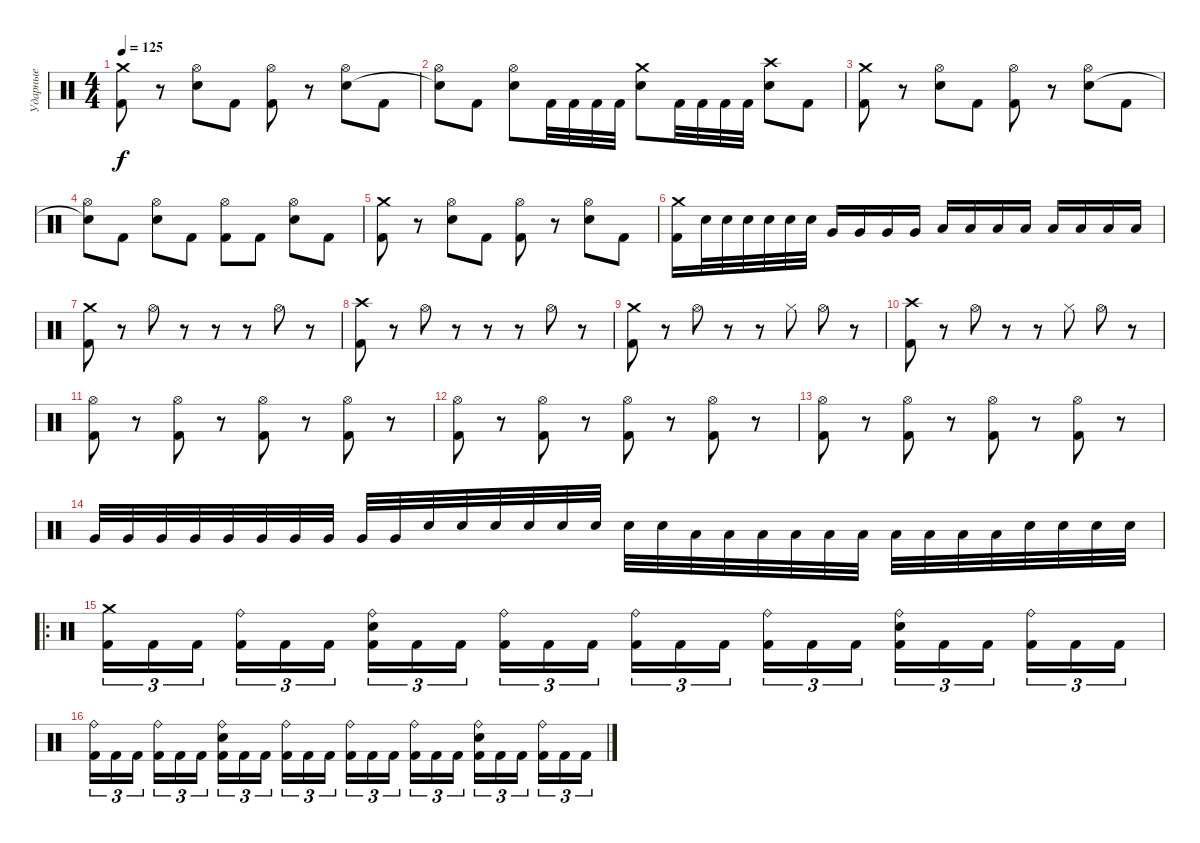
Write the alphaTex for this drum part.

\track ("Ударные" "Ударные") {instrument percussion}
\staff {score}
\articulation defaults
\ts (4 4)
\tempo 125
\clef neutral
\ks c
("Crash medium (hit)" "Kick (hit) 2").8{dy f} r.8 ("Hi-Hat (open)" "Electric Snare (hit)").8 "Kick (hit) 2".8 ("Hi-Hat (open)" "Kick (hit) 2").8 r.8 ("Hi-Hat (open)" "Electric Snare (hit)").8 "Kick (hit) 2".8 |
("Hi-Hat (open)" "Snare (hit)"{t}).8 "Kick (hit) 2".8 ("Hi-Hat (open)" "Electric Snare (hit)").8 "Kick (hit) 2".32 "Kick (hit) 2".32 "Kick (hit) 2".32 "Kick (hit) 2".32 ("Crash medium (hit)" "Electric Snare (hit)").8 "Kick (hit) 2".32 "Kick (hit) 2".32 "Kick (hit) 2".32 "Kick (hit) 2".32 ("Crash high (hit)" "Electric Snare (hit)").8 "Kick (hit) 2".8 |
("Crash medium (hit)" "Kick (hit) 2").8 r.8 ("Hi-Hat (open)" "Electric Snare (hit)").8 "Kick (hit) 2".8 ("Hi-Hat (open)" "Kick (hit) 2").8 r.8 ("Hi-Hat (open)" "Electric Snare (hit)").8 "Kick (hit) 2".8 |
("Hi-Hat (open)" "Snare (hit)"{t}).8 "Kick (hit) 2".8 ("Hi-Hat (open)" "Electric Snare (hit)").8 "Kick (hit) 2".8 ("Hi-Hat (open)" "Kick (hit) 2").8 "Kick (hit) 2".8 ("Hi-Hat (open)" "Electric Snare (hit)").8 "Kick (hit) 2".8 |
("Crash medium (hit)" "Kick (hit) 2").8 r.8 ("Hi-Hat (open)" "Electric Snare (hit)").8 "Kick (hit) 2".8 ("Hi-Hat (open)" "Kick (hit) 2").8 r.8 ("Hi-Hat (open)" "Electric Snare (hit)").8 "Kick (hit) 2".8 |
("Crash medium (hit)" "Kick (hit) 2").16 "Electric Snare (hit)".32 "Electric Snare (hit)".32 "Electric Snare (hit)".32 "Electric Snare (hit)".32 "Electric Snare (hit)".32 "Electric Snare (hit)".32 "Very Low Tom (hit)".16 "Very Low Tom (hit)".16 "Very Low Tom (hit)".16 "Very Low Tom (hit)".16 "Low Floor Tom (hit)".16 "Low Floor Tom (hit)".16 "Low Floor Tom (hit)".16 "Low Floor Tom (hit)".16 "Low Floor Tom (hit)".16 "Low Floor Tom (hit)".16 "Low Floor Tom (hit)".16 "Low Floor Tom (hit)".16 |
("Crash medium (hit)" "Kick (hit) 2").8 r.8 "Hi-Hat (open)".8 r.8 r.8 r.8 "Hi-Hat (open)".8 r.8 |
("Crash high (hit)" "Kick (hit) 2").8 r.8 "Hi-Hat (open)".8 r.8 r.8 r.8 "Hi-Hat (open)".8 r.8 |
("Crash medium (hit)" "Kick (hit) 2").8 r.8 "Hi-Hat (open)".8 r.8 r.8 "Hi-Hat (closed)".8 "Hi-Hat (open)".8 r.8 |
("Crash high (hit)" "Kick (hit) 2").8 r.8 "Hi-Hat (open)".8 r.8 r.8 "Hi-Hat (closed)".8 "Hi-Hat (open)".8 r.8 |
("Hi-Hat (open)" "Kick (hit) 2").8 r.8 ("Hi-Hat (open)" "Kick (hit) 2").8 r.8 ("Hi-Hat (open)" "Kick (hit) 2").8 r.8 ("Hi-Hat (open)" "Kick (hit) 2").8 r.8 |
("Hi-Hat (open)" "Kick (hit) 2").8 r.8 ("Hi-Hat (open)" "Kick (hit) 2").8 r.8 ("Hi-Hat (open)" "Kick (hit) 2").8 r.8 ("Hi-Hat (open)" "Kick (hit) 2").8 r.8 |
("Hi-Hat (open)" "Kick (hit) 2").8 r.8 ("Hi-Hat (open)" "Kick (hit) 2").8 r.8 ("Hi-Hat (open)" "Kick (hit) 2").8 r.8 ("Hi-Hat (open)" "Kick (hit) 2").8 r.8 |
"Very Low Tom (hit)".32 "Very Low Tom (hit)".32 "Very Low Tom (hit)".32 "Very Low Tom (hit)".32 "Very Low Tom (hit)".32 "Very Low Tom (hit)".32 "Very Low Tom (hit)".32 "Very Low Tom (hit)".32 "Very Low Tom (hit)".32 "Very Low Tom (hit)".32 "Electric Snare (hit)".32 "Electric Snare (hit)".32 "Electric Snare (hit)".32 "Electric Snare (hit)".32 "Electric Snare (hit)".32 "Electric Snare (hit)".32 "Electric Snare (hit)".32 "Electric Snare (hit)".32 "Low Floor Tom (hit)".32 "Low Floor Tom (hit)".32 "Low Floor Tom (hit)".32 "Low Floor Tom (hit)".32 "Low Floor Tom (hit)".32 "Low Floor Tom (hit)".32 "Low Floor Tom (hit)".32 "Low Floor Tom (hit)".32 "Low Floor Tom (hit)".32 "Low Floor Tom (hit)".32 "Electric Snare (hit)".32 "Electric Snare (hit)".32 "Electric Snare (hit)".32 "Electric Snare (hit)".32 |
\ro
("Crash medium (hit)" "Kick (hit) 2").16{tu (3 2)} "Kick (hit) 2".16{tu (3 2)} "Kick (hit) 2".16{tu (3 2) beam splitsecondary} ("Ride (bell)" "Kick (hit) 2").16{tu (3 2)} "Kick (hit) 2".16{tu (3 2)} "Kick (hit) 2".16{tu (3 2)} ("Ride (bell)" "Electric Snare (hit)" "Kick (hit) 2").16{tu (3 2)} "Kick (hit) 2".16{tu (3 2)} "Kick (hit) 2".16{tu (3 2) beam splitsecondary} ("Ride (bell)" "Kick (hit) 2").16{tu (3 2)} "Kick (hit) 2".16{tu (3 2)} "Kick (hit) 2".16{tu (3 2)} ("Ride (bell)" "Kick (hit) 2").16{tu (3 2)} "Kick (hit) 2".16{tu (3 2)} "Kick (hit) 2".16{tu (3 2) beam splitsecondary} ("Ride (bell)" "Kick (hit) 2").16{tu (3 2)} "Kick (hit) 2".16{tu (3 2)} "Kick (hit) 2".16{tu (3 2)} ("Ride (bell)" "Electric Snare (hit)" "Kick (hit) 2").16{tu (3 2)} "Kick (hit) 2".16{tu (3 2)} "Kick (hit) 2".16{tu (3 2) beam splitsecondary} ("Ride (bell)" "Kick (hit) 2").16{tu (3 2)} "Kick (hit) 2".16{tu (3 2)} "Kick (hit) 2".16{tu (3 2)} |
("Ride (bell)" "Kick (hit) 2").16{tu (3 2)} "Kick (hit) 2".16{tu (3 2)} "Kick (hit) 2".16{tu (3 2) beam splitsecondary} ("Ride (bell)" "Kick (hit) 2").16{tu (3 2)} "Kick (hit) 2".16{tu (3 2)} "Kick (hit) 2".16{tu (3 2)} ("Ride (bell)" "Electric Snare (hit)" "Kick (hit) 2").16{tu (3 2)} "Kick (hit) 2".16{tu (3 2)} "Kick (hit) 2".16{tu (3 2) beam splitsecondary} ("Ride (bell)" "Kick (hit) 2").16{tu (3 2)} "Kick (hit) 2".16{tu (3 2)} "Kick (hit) 2".16{tu (3 2)} ("Ride (bell)" "Kick (hit) 2").16{tu (3 2)} "Kick (hit) 2".16{tu (3 2)} "Kick (hit) 2".16{tu (3 2) beam splitsecondary} ("Ride (bell)" "Kick (hit) 2").16{tu (3 2)} "Kick (hit) 2".16{tu (3 2)} "Kick (hit) 2".16{tu (3 2)} ("Ride (bell)" "Electric Snare (hit)" "Kick (hit) 2").16{tu (3 2)} "Kick (hit) 2".16{tu (3 2)} "Kick (hit) 2".16{tu (3 2) beam splitsecondary} ("Ride (bell)" "Kick (hit) 2").16{tu (3 2)} "Kick (hit) 2".16{tu (3 2)} "Kick (hit) 2".16{tu (3 2)}
